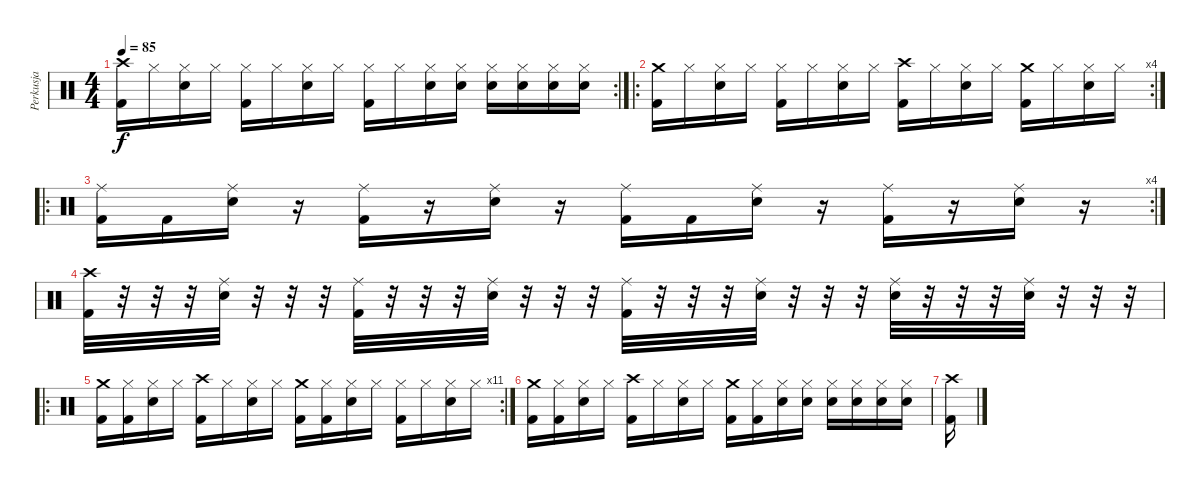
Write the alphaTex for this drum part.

\track ("Perkusja" "Perkusja") {instrument percussion}
\staff {score}
\articulation defaults
\rc 2
\ts (4 4)
\tempo 85
\clef neutral
\ks c
("Crash high (hit)" "Kick (hit) 2").16{dy f} "Hi-Hat (closed)".16 ("Hi-Hat (closed)" "Electric Snare (hit)").16 "Hi-Hat (closed)".16 ("Hi-Hat (closed)" "Kick (hit) 2").16 "Hi-Hat (closed)".16 ("Hi-Hat (closed)" "Electric Snare (hit)").16 "Hi-Hat (closed)".16 ("Hi-Hat (closed)" "Kick (hit) 2").16 "Hi-Hat (closed)".16 ("Hi-Hat (closed)" "Electric Snare (hit)").16 ("Hi-Hat (closed)" "Electric Snare (hit)").16 ("Hi-Hat (closed)" "Electric Snare (hit)").16 ("Hi-Hat (closed)" "Electric Snare (hit)").16 ("Hi-Hat (closed)" "Electric Snare (hit)").16 ("Hi-Hat (closed)" "Electric Snare (hit)").16 |
\ro
\rc 4
("Crash medium (hit)" "Kick (hit) 2").16 "Hi-Hat (closed)".16 ("Hi-Hat (closed)" "Electric Snare (hit)").16 "Hi-Hat (closed)".16 ("Hi-Hat (closed)" "Kick (hit) 2").16 "Hi-Hat (closed)".16 ("Hi-Hat (closed)" "Electric Snare (hit)").16 "Hi-Hat (closed)".16 ("Crash high (hit)" "Kick (hit) 2").16 "Hi-Hat (closed)".16 ("Hi-Hat (closed)" "Electric Snare (hit)").16 "Hi-Hat (closed)".16 ("Crash medium (hit)" "Kick (hit) 2").16 "Hi-Hat (closed)".16 ("Hi-Hat (closed)" "Electric Snare (hit)").16 "Hi-Hat (closed)".16 |
\ro
\rc 4
("Ride (middle)" "Kick (hit) 2").16 "Kick (hit) 2".16 ("Ride (middle)" "Electric Snare (hit)").16 r.16 ("Ride (middle)" "Kick (hit) 2").16 r.16 ("Ride (middle)" "Electric Snare (hit)").16 r.16 ("Ride (middle)" "Kick (hit) 2").16 "Kick (hit) 2".16 ("Ride (middle)" "Electric Snare (hit)").16 r.16 ("Ride (middle)" "Kick (hit) 2").16 r.16 ("Ride (middle)" "Electric Snare (hit)").16 r.16 |
("Crash high (hit)" "Kick (hit) 2").32 r.32 r.32 r.32 ("Ride (middle)" "Electric Snare (hit)").32 r.32 r.32 r.32 ("Ride (middle)" "Kick (hit) 2").32 r.32 r.32 r.32 ("Ride (middle)" "Electric Snare (hit)").32 r.32 r.32 r.32 ("Ride (middle)" "Kick (hit) 2").32 r.32 r.32 r.32 ("Ride (middle)" "Electric Snare (hit)").32 r.32 r.32 r.32 ("Ride (middle)" "Electric Snare (hit)").32 r.32 r.32 r.32 ("Ride (middle)" "Electric Snare (hit)").32 r.32 r.32 r.32 |
\ro
\rc 11
("Crash medium (hit)" "Kick (hit) 2").16 ("Hi-Hat (closed)" "Kick (hit) 2").16 ("Hi-Hat (closed)" "Electric Snare (hit)").16 "Hi-Hat (closed)".16 ("Crash high (hit)" "Kick (hit) 2").16 "Hi-Hat (closed)".16 ("Hi-Hat (closed)" "Electric Snare (hit)").16 "Hi-Hat (closed)".16 ("Crash medium (hit)" "Kick (hit) 2").16 ("Hi-Hat (closed)" "Kick (hit) 2").16 ("Hi-Hat (closed)" "Electric Snare (hit)").16 "Hi-Hat (closed)".16 ("Hi-Hat (closed)" "Kick (hit) 2").16 "Hi-Hat (closed)".16 ("Hi-Hat (closed)" "Electric Snare (hit)").16 "Hi-Hat (closed)".16 |
("Crash medium (hit)" "Kick (hit) 2").16 ("Hi-Hat (closed)" "Kick (hit) 2").16 ("Hi-Hat (closed)" "Electric Snare (hit)").16 "Hi-Hat (closed)".16 ("Crash high (hit)" "Kick (hit) 2").16 "Hi-Hat (closed)".16 ("Hi-Hat (closed)" "Electric Snare (hit)").16 "Hi-Hat (closed)".16 ("Crash medium (hit)" "Kick (hit) 2").16 ("Hi-Hat (closed)" "Kick (hit) 2").16 ("Hi-Hat (closed)" "Electric Snare (hit)").16 ("Hi-Hat (closed)" "Electric Snare (hit)").16 ("Hi-Hat (closed)" "Electric Snare (hit)").16 ("Hi-Hat (closed)" "Electric Snare (hit)").16 ("Hi-Hat (closed)" "Electric Snare (hit)").16 ("Hi-Hat (closed)" "Electric Snare (hit)").16 |
("Crash high (hit)" "Kick (hit) 2").16
